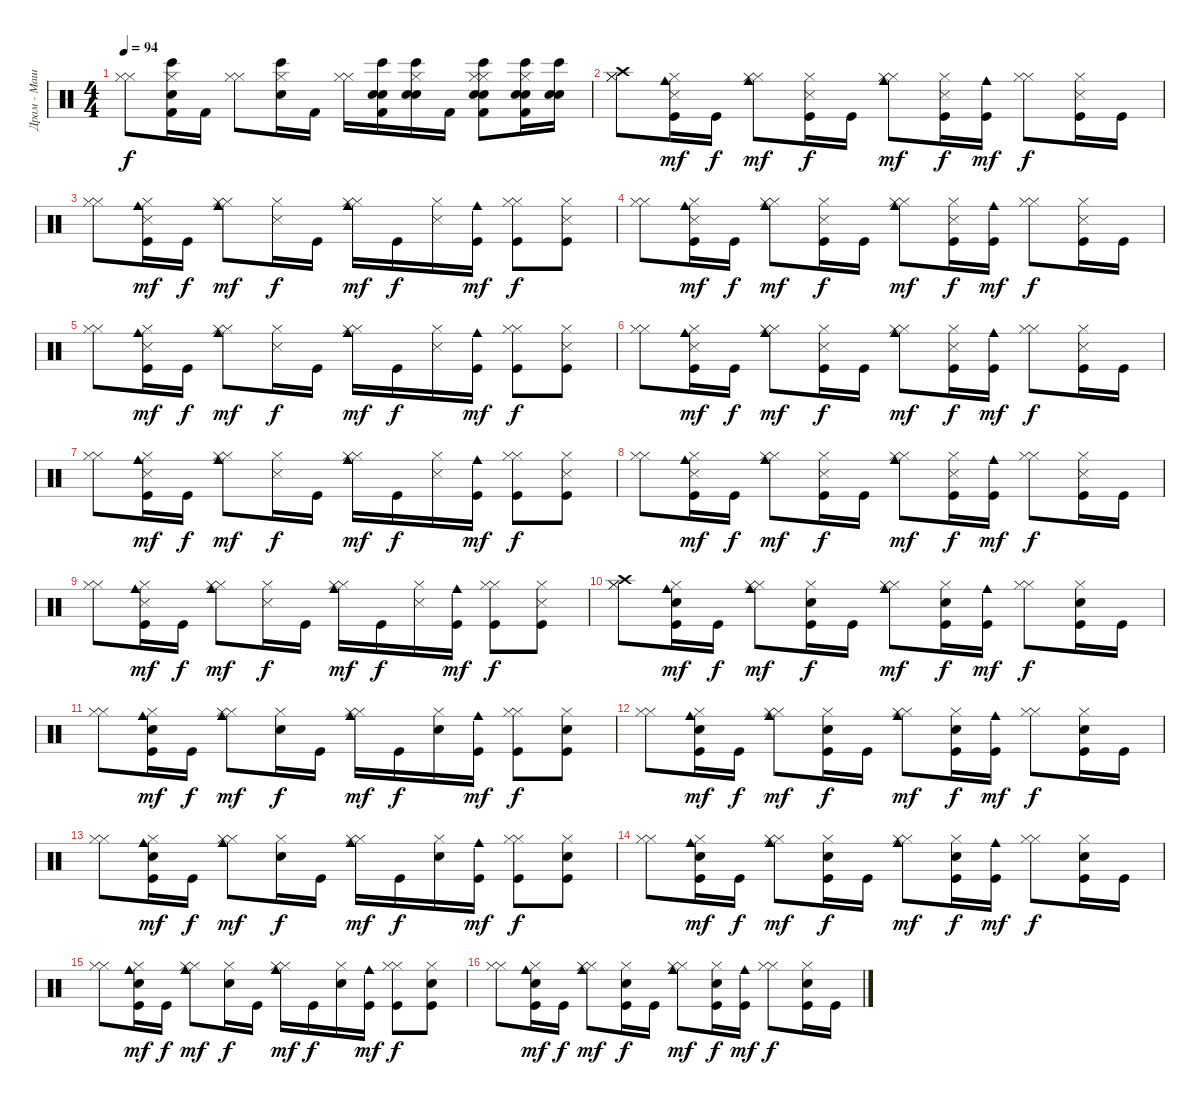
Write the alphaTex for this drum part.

\track ("Драм - Машина" "Драм - Маш") {instrument percussion}
\staff {score}
\articulation defaults
\ts (4 4)
\tempo 94
\clef neutral
\ks c
("Hi-Hat (closed)" "Hi-Hat (closed)").8{dy f} ("Snare (hit) 2" "Hi-Hat (closed)" "Bongo High (hit)" "Kick (hit) 2").16 "Kick (hit) 2".16 ("Hi-Hat (closed)" "Hi-Hat (closed)").8 ("Bongo High (hit)" "Snare (hit) 2" "Hi-Hat (closed)").16 "Kick (hit) 2".16 ("Hi-Hat (closed)" "Hi-Hat (closed)").16 ("Snare (hit) 2" "Electric Snare (hit)" "Bongo High (hit)" "Kick (hit) 2").16 ("Hi-Hat (closed)" "Electric Snare (hit)" "Bongo High (hit)" "Snare (hit) 2").16 "Kick (hit) 2".16 ("Hi-Hat (closed)" "Hi-Hat (closed)" "Bongo High (hit)" "Electric Snare (hit)" "Snare (hit) 2" "Kick (hit) 2").8 ("Snare (hit) 2" "Hi-Hat (closed)" "Bongo High (hit)" "Electric Snare (hit)" "Kick (hit) 2").16 ("Snare (hit) 2" "Bongo High (hit)" "Electric Snare (hit)").16 |
("Hi-Hat (closed)" "Crash high (hit)" "Hi-Hat (closed)").8 ("Snare (side stick) 3" "Hi-Hat (closed)" "Kick (hit)" "Cowbell medium (hit)").16{dy mf} "Kick (hit)".16{dy f} ("Hi-Hat (closed)" "Hi-Hat (closed)" "Cowbell medium (hit)").8{dy mf} ("Snare (side stick) 3" "Hi-Hat (closed)" "Kick (hit)").16{dy f} "Kick (hit)".16 ("Cowbell medium (hit)" "Hi-Hat (closed)" "Hi-Hat (closed)").8{dy mf} ("Snare (side stick) 3" "Hi-Hat (closed)" "Kick (hit)").16{dy f} ("Cowbell medium (hit)" "Kick (hit)").16{dy mf} ("Hi-Hat (closed)" "Hi-Hat (closed)").8{dy f} ("Snare (side stick) 3" "Hi-Hat (closed)" "Kick (hit)").16 "Kick (hit)".16 |
("Hi-Hat (closed)" "Hi-Hat (closed)").8 ("Snare (side stick) 3" "Hi-Hat (closed)" "Kick (hit)" "Cowbell medium (hit)").16{dy mf} "Kick (hit)".16{dy f} ("Hi-Hat (closed)" "Hi-Hat (closed)" "Cowbell medium (hit)").8{dy mf} ("Hi-Hat (closed)" "Snare (side stick) 3").16{dy f} "Kick (hit)".16 ("Cowbell medium (hit)" "Hi-Hat (closed)" "Hi-Hat (closed)").16{dy mf} "Kick (hit)".16{dy f} ("Snare (side stick) 3" "Hi-Hat (closed)").16 ("Cowbell medium (hit)" "Kick (hit)").16{dy mf} ("Hi-Hat (closed)" "Hi-Hat (closed)" "Kick (hit)").8{dy f} ("Hi-Hat (closed)" "Snare (side stick) 3" "Kick (hit)").8 |
("Hi-Hat (closed)" "Hi-Hat (closed)").8 ("Hi-Hat (closed)" "Snare (side stick) 3" "Kick (hit)" "Cowbell medium (hit)").16{dy mf} "Kick (hit)".16{dy f} ("Cowbell medium (hit)" "Hi-Hat (closed)" "Hi-Hat (closed)").8{dy mf} ("Hi-Hat (closed)" "Snare (side stick) 3" "Kick (hit)").16{dy f} "Kick (hit)".16 ("Cowbell medium (hit)" "Hi-Hat (closed)" "Hi-Hat (closed)").8{dy mf} ("Snare (side stick) 3" "Hi-Hat (closed)" "Kick (hit)").16{dy f} ("Cowbell medium (hit)" "Kick (hit)").16{dy mf} ("Hi-Hat (closed)" "Hi-Hat (closed)").8{dy f} ("Snare (side stick) 3" "Hi-Hat (closed)" "Kick (hit)").16 "Kick (hit)".16 |
("Hi-Hat (closed)" "Hi-Hat (closed)").8 ("Snare (side stick) 3" "Hi-Hat (closed)" "Kick (hit)" "Cowbell medium (hit)").16{dy mf} "Kick (hit)".16{dy f} ("Cowbell medium (hit)" "Hi-Hat (closed)" "Hi-Hat (closed)").8{dy mf} ("Snare (side stick) 3" "Hi-Hat (closed)").16{dy f} "Kick (hit)".16 ("Hi-Hat (closed)" "Cowbell medium (hit)" "Hi-Hat (closed)").16{dy mf} "Kick (hit)".16{dy f} ("Snare (side stick) 3" "Hi-Hat (closed)").16 ("Cowbell medium (hit)" "Kick (hit)").16{dy mf} ("Hi-Hat (closed)" "Hi-Hat (closed)" "Kick (hit)").8{dy f} ("Snare (side stick) 3" "Hi-Hat (closed)" "Kick (hit)").8 |
("Hi-Hat (closed)" "Hi-Hat (closed)").8 ("Snare (side stick) 3" "Hi-Hat (closed)" "Kick (hit)" "Cowbell medium (hit)").16{dy mf} "Kick (hit)".16{dy f} ("Hi-Hat (closed)" "Hi-Hat (closed)" "Cowbell medium (hit)").8{dy mf} ("Snare (side stick) 3" "Hi-Hat (closed)" "Kick (hit)").16{dy f} "Kick (hit)".16 ("Hi-Hat (closed)" "Cowbell medium (hit)" "Hi-Hat (closed)").8{dy mf} ("Hi-Hat (closed)" "Snare (side stick) 3" "Kick (hit)").16{dy f} ("Cowbell medium (hit)" "Kick (hit)").16{dy mf} ("Hi-Hat (closed)" "Hi-Hat (closed)").8{dy f} ("Snare (side stick) 3" "Hi-Hat (closed)" "Kick (hit)").16 "Kick (hit)".16 |
("Hi-Hat (closed)" "Hi-Hat (closed)").8 ("Hi-Hat (closed)" "Snare (side stick) 3" "Kick (hit)" "Cowbell medium (hit)").16{dy mf} "Kick (hit)".16{dy f} ("Hi-Hat (closed)" "Hi-Hat (closed)" "Cowbell medium (hit)").8{dy mf} ("Hi-Hat (closed)" "Snare (side stick) 3").16{dy f} "Kick (hit)".16 ("Hi-Hat (closed)" "Hi-Hat (closed)" "Cowbell medium (hit)").16{dy mf} "Kick (hit)".16{dy f} ("Snare (side stick) 3" "Hi-Hat (closed)").16 ("Cowbell medium (hit)" "Kick (hit)").16{dy mf} ("Hi-Hat (closed)" "Hi-Hat (closed)" "Kick (hit)").8{dy f} ("Hi-Hat (closed)" "Snare (side stick) 3" "Kick (hit)").8 |
("Hi-Hat (closed)" "Hi-Hat (closed)").8 ("Hi-Hat (closed)" "Snare (side stick) 3" "Kick (hit)" "Cowbell medium (hit)").16{dy mf} "Kick (hit)".16{dy f} ("Cowbell medium (hit)" "Hi-Hat (closed)" "Hi-Hat (closed)").8{dy mf} ("Hi-Hat (closed)" "Snare (side stick) 3" "Kick (hit)").16{dy f} "Kick (hit)".16 ("Hi-Hat (closed)" "Hi-Hat (closed)" "Cowbell medium (hit)").8{dy mf} ("Snare (side stick) 3" "Hi-Hat (closed)" "Kick (hit)").16{dy f} ("Cowbell medium (hit)" "Kick (hit)").16{dy mf} ("Hi-Hat (closed)" "Hi-Hat (closed)").8{dy f} ("Hi-Hat (closed)" "Snare (side stick) 3" "Kick (hit)").16 "Kick (hit)".16 |
("Hi-Hat (closed)" "Hi-Hat (closed)").8 ("Hi-Hat (closed)" "Snare (side stick) 3" "Kick (hit)" "Cowbell medium (hit)").16{dy mf} "Kick (hit)".16{dy f} ("Cowbell medium (hit)" "Hi-Hat (closed)" "Hi-Hat (closed)").8{dy mf} ("Hi-Hat (closed)" "Snare (side stick) 3").16{dy f} "Kick (hit)".16 ("Cowbell medium (hit)" "Hi-Hat (closed)" "Hi-Hat (closed)").16{dy mf} "Kick (hit)".16{dy f} ("Snare (side stick) 3" "Hi-Hat (closed)").16 ("Cowbell medium (hit)" "Kick (hit)").16{dy mf} ("Hi-Hat (closed)" "Hi-Hat (closed)" "Kick (hit)").8{dy f} ("Hi-Hat (closed)" "Snare (side stick) 3" "Kick (hit)").8 |
("Hi-Hat (closed)" "Hi-Hat (closed)" "Crash high (hit)").8 ("Hi-Hat (closed)" "Snare (hit) 2" "Kick (hit)" "Cowbell medium (hit)").16{dy mf} "Kick (hit)".16{dy f} ("Hi-Hat (closed)" "Hi-Hat (closed)" "Cowbell medium (hit)").8{dy mf} ("Hi-Hat (closed)" "Snare (hit) 2" "Kick (hit)").16{dy f} "Kick (hit)".16 ("Hi-Hat (closed)" "Hi-Hat (closed)" "Cowbell medium (hit)").8{dy mf} ("Hi-Hat (closed)" "Snare (hit) 2" "Kick (hit)").16{dy f} ("Cowbell medium (hit)" "Kick (hit)").16{dy mf} ("Hi-Hat (closed)" "Hi-Hat (closed)").8{dy f} ("Hi-Hat (closed)" "Snare (hit) 2" "Kick (hit)").16 "Kick (hit)".16 |
("Hi-Hat (closed)" "Hi-Hat (closed)").8 ("Hi-Hat (closed)" "Snare (hit) 2" "Kick (hit)" "Cowbell medium (hit)").16{dy mf} "Kick (hit)".16{dy f} ("Hi-Hat (closed)" "Hi-Hat (closed)" "Cowbell medium (hit)").8{dy mf} ("Hi-Hat (closed)" "Snare (hit) 2").16{dy f} "Kick (hit)".16 ("Hi-Hat (closed)" "Hi-Hat (closed)" "Cowbell medium (hit)").16{dy mf} "Kick (hit)".16{dy f} ("Hi-Hat (closed)" "Snare (hit) 2").16 ("Cowbell medium (hit)" "Kick (hit)").16{dy mf} ("Hi-Hat (closed)" "Hi-Hat (closed)" "Kick (hit)").8{dy f} ("Hi-Hat (closed)" "Snare (hit) 2" "Kick (hit)").8 |
("Hi-Hat (closed)" "Hi-Hat (closed)").8 ("Snare (hit) 2" "Hi-Hat (closed)" "Kick (hit)" "Cowbell medium (hit)").16{dy mf} "Kick (hit)".16{dy f} ("Hi-Hat (closed)" "Hi-Hat (closed)" "Cowbell medium (hit)").8{dy mf} ("Snare (hit) 2" "Hi-Hat (closed)" "Kick (hit)").16{dy f} "Kick (hit)".16 ("Hi-Hat (closed)" "Hi-Hat (closed)" "Cowbell medium (hit)").8{dy mf} ("Snare (hit) 2" "Hi-Hat (closed)" "Kick (hit)").16{dy f} ("Cowbell medium (hit)" "Kick (hit)").16{dy mf} ("Hi-Hat (closed)" "Hi-Hat (closed)").8{dy f} ("Snare (hit) 2" "Hi-Hat (closed)" "Kick (hit)").16 "Kick (hit)".16 |
("Hi-Hat (closed)" "Hi-Hat (closed)").8 ("Snare (hit) 2" "Hi-Hat (closed)" "Kick (hit)" "Cowbell medium (hit)").16{dy mf} "Kick (hit)".16{dy f} ("Hi-Hat (closed)" "Cowbell medium (hit)" "Hi-Hat (closed)").8{dy mf} ("Hi-Hat (closed)" "Snare (hit) 2").16{dy f} "Kick (hit)".16 ("Hi-Hat (closed)" "Cowbell medium (hit)" "Hi-Hat (closed)").16{dy mf} "Kick (hit)".16{dy f} ("Snare (hit) 2" "Hi-Hat (closed)").16 ("Cowbell medium (hit)" "Kick (hit)").16{dy mf} ("Hi-Hat (closed)" "Hi-Hat (closed)" "Kick (hit)").8{dy f} ("Hi-Hat (closed)" "Snare (hit) 2" "Kick (hit)").8 |
("Hi-Hat (closed)" "Hi-Hat (closed)").8 ("Hi-Hat (closed)" "Snare (hit) 2" "Kick (hit)" "Cowbell medium (hit)").16{dy mf} "Kick (hit)".16{dy f} ("Hi-Hat (closed)" "Cowbell medium (hit)" "Hi-Hat (closed)").8{dy mf} ("Hi-Hat (closed)" "Snare (hit) 2" "Kick (hit)").16{dy f} "Kick (hit)".16 ("Cowbell medium (hit)" "Hi-Hat (closed)" "Hi-Hat (closed)").8{dy mf} ("Snare (hit) 2" "Hi-Hat (closed)" "Kick (hit)").16{dy f} ("Cowbell medium (hit)" "Kick (hit)").16{dy mf} ("Hi-Hat (closed)" "Hi-Hat (closed)").8{dy f} ("Hi-Hat (closed)" "Snare (hit) 2" "Kick (hit)").16 "Kick (hit)".16 |
("Hi-Hat (closed)" "Hi-Hat (closed)").8 ("Snare (hit) 2" "Hi-Hat (closed)" "Kick (hit)" "Cowbell medium (hit)").16{dy mf} "Kick (hit)".16{dy f} ("Hi-Hat (closed)" "Hi-Hat (closed)" "Cowbell medium (hit)").8{dy mf} ("Snare (hit) 2" "Hi-Hat (closed)").16{dy f} "Kick (hit)".16 ("Cowbell medium (hit)" "Hi-Hat (closed)" "Hi-Hat (closed)").16{dy mf} "Kick (hit)".16{dy f} ("Snare (hit) 2" "Hi-Hat (closed)").16 ("Cowbell medium (hit)" "Kick (hit)").16{dy mf} ("Hi-Hat (closed)" "Hi-Hat (closed)" "Kick (hit)").8{dy f} ("Hi-Hat (closed)" "Snare (hit) 2" "Kick (hit)").8 |
("Hi-Hat (closed)" "Hi-Hat (closed)").8 ("Snare (hit) 2" "Hi-Hat (closed)" "Kick (hit)" "Cowbell medium (hit)").16{dy mf} "Kick (hit)".16{dy f} ("Hi-Hat (closed)" "Hi-Hat (closed)" "Cowbell medium (hit)").8{dy mf} ("Snare (hit) 2" "Hi-Hat (closed)" "Kick (hit)").16{dy f} "Kick (hit)".16 ("Hi-Hat (closed)" "Cowbell medium (hit)" "Hi-Hat (closed)").8{dy mf} ("Snare (hit) 2" "Hi-Hat (closed)" "Kick (hit)").16{dy f} ("Cowbell medium (hit)" "Kick (hit)").16{dy mf} ("Hi-Hat (closed)" "Hi-Hat (closed)").8{dy f} ("Snare (hit) 2" "Hi-Hat (closed)" "Kick (hit)").16 "Kick (hit)".16
